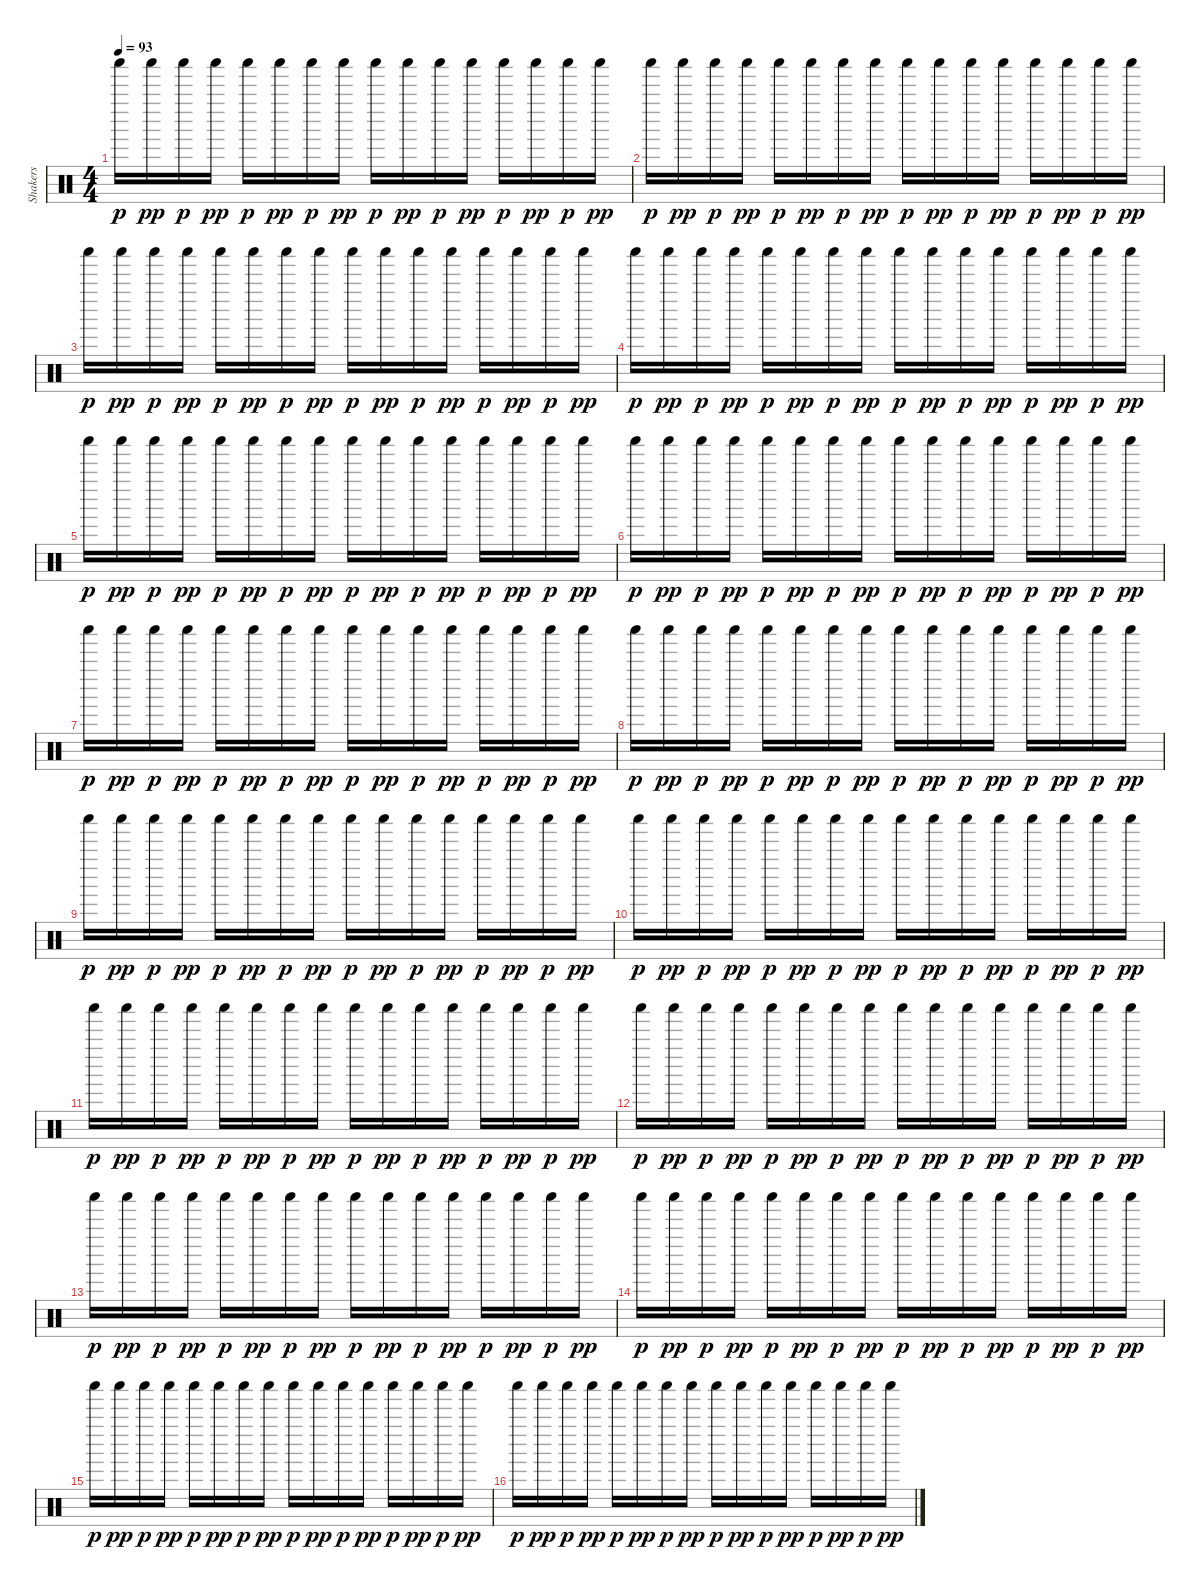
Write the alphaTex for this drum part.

\track ("Shakers" "Shakers") {instrument percussion}
\staff {score}
\articulation defaults
\ts (4 4)
\tempo 93
\clef neutral
\ks c "Shaker (hit)".16{dy p} "Shaker (hit)".16{dy pp} "Shaker (hit)".16{dy p} "Shaker (hit)".16{dy pp} "Shaker (hit)".16{dy p} "Shaker (hit)".16{dy pp} "Shaker (hit)".16{dy p} "Shaker (hit)".16{dy pp} "Shaker (hit)".16{dy p} "Shaker (hit)".16{dy pp} "Shaker (hit)".16{dy p} "Shaker (hit)".16{dy pp} "Shaker (hit)".16{dy p} "Shaker (hit)".16{dy pp} "Shaker (hit)".16{dy p} "Shaker (hit)".16{dy pp}
|
"Shaker (hit)".16{dy p} "Shaker (hit)".16{dy pp} "Shaker (hit)".16{dy p} "Shaker (hit)".16{dy pp} "Shaker (hit)".16{dy p} "Shaker (hit)".16{dy pp} "Shaker (hit)".16{dy p} "Shaker (hit)".16{dy pp} "Shaker (hit)".16{dy p} "Shaker (hit)".16{dy pp} "Shaker (hit)".16{dy p} "Shaker (hit)".16{dy pp} "Shaker (hit)".16{dy p} "Shaker (hit)".16{dy pp} "Shaker (hit)".16{dy p} "Shaker (hit)".16{dy pp} |
"Shaker (hit)".16{dy p} "Shaker (hit)".16{dy pp} "Shaker (hit)".16{dy p} "Shaker (hit)".16{dy pp} "Shaker (hit)".16{dy p} "Shaker (hit)".16{dy pp} "Shaker (hit)".16{dy p} "Shaker (hit)".16{dy pp} "Shaker (hit)".16{dy p} "Shaker (hit)".16{dy pp} "Shaker (hit)".16{dy p} "Shaker (hit)".16{dy pp} "Shaker (hit)".16{dy p} "Shaker (hit)".16{dy pp} "Shaker (hit)".16{dy p} "Shaker (hit)".16{dy pp} |
"Shaker (hit)".16{dy p} "Shaker (hit)".16{dy pp} "Shaker (hit)".16{dy p} "Shaker (hit)".16{dy pp} "Shaker (hit)".16{dy p} "Shaker (hit)".16{dy pp} "Shaker (hit)".16{dy p} "Shaker (hit)".16{dy pp} "Shaker (hit)".16{dy p} "Shaker (hit)".16{dy pp} "Shaker (hit)".16{dy p} "Shaker (hit)".16{dy pp} "Shaker (hit)".16{dy p} "Shaker (hit)".16{dy pp} "Shaker (hit)".16{dy p} "Shaker (hit)".16{dy pp} |
"Shaker (hit)".16{dy p} "Shaker (hit)".16{dy pp} "Shaker (hit)".16{dy p} "Shaker (hit)".16{dy pp} "Shaker (hit)".16{dy p} "Shaker (hit)".16{dy pp} "Shaker (hit)".16{dy p} "Shaker (hit)".16{dy pp} "Shaker (hit)".16{dy p} "Shaker (hit)".16{dy pp} "Shaker (hit)".16{dy p} "Shaker (hit)".16{dy pp} "Shaker (hit)".16{dy p} "Shaker (hit)".16{dy pp} "Shaker (hit)".16{dy p} "Shaker (hit)".16{dy pp} |
"Shaker (hit)".16{dy p} "Shaker (hit)".16{dy pp} "Shaker (hit)".16{dy p} "Shaker (hit)".16{dy pp} "Shaker (hit)".16{dy p} "Shaker (hit)".16{dy pp} "Shaker (hit)".16{dy p} "Shaker (hit)".16{dy pp} "Shaker (hit)".16{dy p} "Shaker (hit)".16{dy pp} "Shaker (hit)".16{dy p} "Shaker (hit)".16{dy pp} "Shaker (hit)".16{dy p} "Shaker (hit)".16{dy pp} "Shaker (hit)".16{dy p} "Shaker (hit)".16{dy pp} |
"Shaker (hit)".16{dy p} "Shaker (hit)".16{dy pp} "Shaker (hit)".16{dy p} "Shaker (hit)".16{dy pp} "Shaker (hit)".16{dy p} "Shaker (hit)".16{dy pp} "Shaker (hit)".16{dy p} "Shaker (hit)".16{dy pp} "Shaker (hit)".16{dy p} "Shaker (hit)".16{dy pp} "Shaker (hit)".16{dy p} "Shaker (hit)".16{dy pp} "Shaker (hit)".16{dy p} "Shaker (hit)".16{dy pp} "Shaker (hit)".16{dy p} "Shaker (hit)".16{dy pp} |
"Shaker (hit)".16{dy p} "Shaker (hit)".16{dy pp} "Shaker (hit)".16{dy p} "Shaker (hit)".16{dy pp} "Shaker (hit)".16{dy p} "Shaker (hit)".16{dy pp} "Shaker (hit)".16{dy p} "Shaker (hit)".16{dy pp} "Shaker (hit)".16{dy p} "Shaker (hit)".16{dy pp} "Shaker (hit)".16{dy p} "Shaker (hit)".16{dy pp} "Shaker (hit)".16{dy p} "Shaker (hit)".16{dy pp} "Shaker (hit)".16{dy p} "Shaker (hit)".16{dy pp} |
"Shaker (hit)".16{dy p} "Shaker (hit)".16{dy pp} "Shaker (hit)".16{dy p} "Shaker (hit)".16{dy pp} "Shaker (hit)".16{dy p} "Shaker (hit)".16{dy pp} "Shaker (hit)".16{dy p} "Shaker (hit)".16{dy pp} "Shaker (hit)".16{dy p} "Shaker (hit)".16{dy pp} "Shaker (hit)".16{dy p} "Shaker (hit)".16{dy pp} "Shaker (hit)".16{dy p} "Shaker (hit)".16{dy pp} "Shaker (hit)".16{dy p} "Shaker (hit)".16{dy pp} |
"Shaker (hit)".16{dy p} "Shaker (hit)".16{dy pp} "Shaker (hit)".16{dy p} "Shaker (hit)".16{dy pp} "Shaker (hit)".16{dy p} "Shaker (hit)".16{dy pp} "Shaker (hit)".16{dy p} "Shaker (hit)".16{dy pp} "Shaker (hit)".16{dy p} "Shaker (hit)".16{dy pp} "Shaker (hit)".16{dy p} "Shaker (hit)".16{dy pp} "Shaker (hit)".16{dy p} "Shaker (hit)".16{dy pp} "Shaker (hit)".16{dy p} "Shaker (hit)".16{dy pp} |
"Shaker (hit)".16{dy p} "Shaker (hit)".16{dy pp} "Shaker (hit)".16{dy p} "Shaker (hit)".16{dy pp} "Shaker (hit)".16{dy p} "Shaker (hit)".16{dy pp} "Shaker (hit)".16{dy p} "Shaker (hit)".16{dy pp} "Shaker (hit)".16{dy p} "Shaker (hit)".16{dy pp} "Shaker (hit)".16{dy p} "Shaker (hit)".16{dy pp} "Shaker (hit)".16{dy p} "Shaker (hit)".16{dy pp} "Shaker (hit)".16{dy p} "Shaker (hit)".16{dy pp} |
"Shaker (hit)".16{dy p} "Shaker (hit)".16{dy pp} "Shaker (hit)".16{dy p} "Shaker (hit)".16{dy pp} "Shaker (hit)".16{dy p} "Shaker (hit)".16{dy pp} "Shaker (hit)".16{dy p} "Shaker (hit)".16{dy pp} "Shaker (hit)".16{dy p} "Shaker (hit)".16{dy pp} "Shaker (hit)".16{dy p} "Shaker (hit)".16{dy pp} "Shaker (hit)".16{dy p} "Shaker (hit)".16{dy pp} "Shaker (hit)".16{dy p} "Shaker (hit)".16{dy pp} |
"Shaker (hit)".16{dy p} "Shaker (hit)".16{dy pp} "Shaker (hit)".16{dy p} "Shaker (hit)".16{dy pp} "Shaker (hit)".16{dy p} "Shaker (hit)".16{dy pp} "Shaker (hit)".16{dy p} "Shaker (hit)".16{dy pp} "Shaker (hit)".16{dy p} "Shaker (hit)".16{dy pp} "Shaker (hit)".16{dy p} "Shaker (hit)".16{dy pp} "Shaker (hit)".16{dy p} "Shaker (hit)".16{dy pp} "Shaker (hit)".16{dy p} "Shaker (hit)".16{dy pp} |
"Shaker (hit)".16{dy p} "Shaker (hit)".16{dy pp} "Shaker (hit)".16{dy p} "Shaker (hit)".16{dy pp} "Shaker (hit)".16{dy p} "Shaker (hit)".16{dy pp} "Shaker (hit)".16{dy p} "Shaker (hit)".16{dy pp} "Shaker (hit)".16{dy p} "Shaker (hit)".16{dy pp} "Shaker (hit)".16{dy p} "Shaker (hit)".16{dy pp} "Shaker (hit)".16{dy p} "Shaker (hit)".16{dy pp} "Shaker (hit)".16{dy p} "Shaker (hit)".16{dy pp} |
"Shaker (hit)".16{dy p} "Shaker (hit)".16{dy pp} "Shaker (hit)".16{dy p} "Shaker (hit)".16{dy pp} "Shaker (hit)".16{dy p} "Shaker (hit)".16{dy pp} "Shaker (hit)".16{dy p} "Shaker (hit)".16{dy pp} "Shaker (hit)".16{dy p} "Shaker (hit)".16{dy pp} "Shaker (hit)".16{dy p} "Shaker (hit)".16{dy pp} "Shaker (hit)".16{dy p} "Shaker (hit)".16{dy pp} "Shaker (hit)".16{dy p} "Shaker (hit)".16{dy pp} |
"Shaker (hit)".16{dy p} "Shaker (hit)".16{dy pp} "Shaker (hit)".16{dy p} "Shaker (hit)".16{dy pp} "Shaker (hit)".16{dy p} "Shaker (hit)".16{dy pp} "Shaker (hit)".16{dy p} "Shaker (hit)".16{dy pp} "Shaker (hit)".16{dy p} "Shaker (hit)".16{dy pp} "Shaker (hit)".16{dy p} "Shaker (hit)".16{dy pp} "Shaker (hit)".16{dy p} "Shaker (hit)".16{dy pp} "Shaker (hit)".16{dy p} "Shaker (hit)".16{dy pp}
